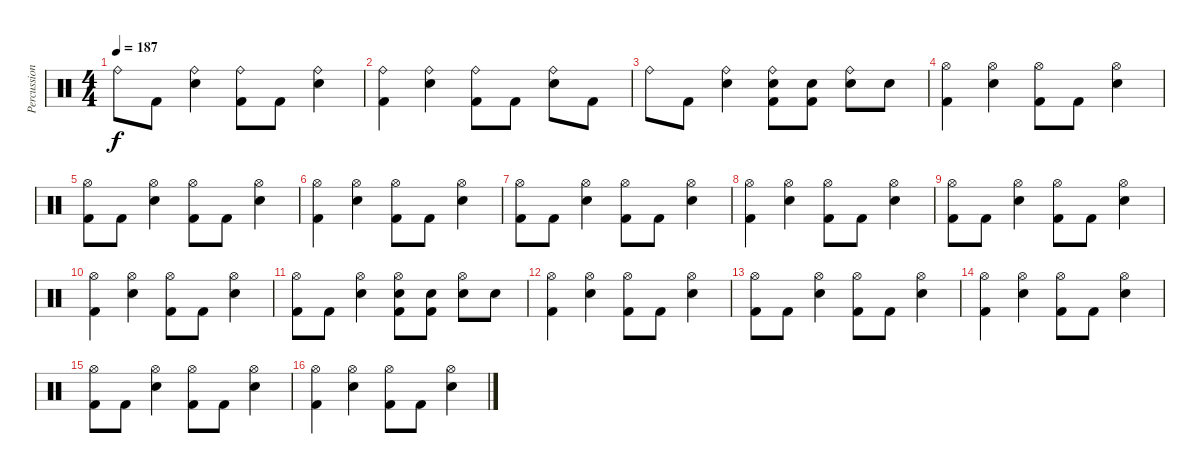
\track ("Percussion" "Percussion") {instrument percussion}
\staff {score}
\articulation defaults
\ts (4 4)
\tempo 187
\clef neutral
\ks c "Ride (bell)".8{dy f} "Kick (hit) 2".8
("Ride (bell)" "Snare (hit) 2").4 ("Ride (bell)" "Kick (hit) 2").8 "Kick (hit) 2".8 ("Ride (bell)" "Snare (hit) 2").4 |
("Ride (bell)" "Kick (hit) 2").4 ("Ride (bell)" "Snare (hit) 2").4 ("Ride (bell)" "Kick (hit) 2").8 "Kick (hit) 2".8 ("Ride (bell)" "Snare (hit) 2").8 "Kick (hit) 2".8 |
"Ride (bell)".8 "Kick (hit) 2".8 ("Ride (bell)" "Snare (hit) 2").4 ("Ride (bell)" "Snare (hit) 2" "Kick (hit) 2").8 ("Snare (hit) 2" "Kick (hit) 2").8 ("Ride (bell)" "Snare (hit) 2").8 "Snare (hit) 2".8 |
("Hi-Hat (open)" "Kick (hit) 2").4 ("Hi-Hat (open)" "Snare (hit) 2").4 ("Hi-Hat (open)" "Kick (hit) 2").8 "Kick (hit) 2".8 ("Hi-Hat (open)" "Snare (hit) 2").4 |
("Hi-Hat (open)" "Kick (hit) 2").8 "Kick (hit) 2".8 ("Hi-Hat (open)" "Snare (hit) 2").4 ("Hi-Hat (open)" "Kick (hit) 2").8 "Kick (hit) 2".8 ("Hi-Hat (open)" "Snare (hit) 2").4 |
("Hi-Hat (open)" "Kick (hit) 2").4 ("Hi-Hat (open)" "Snare (hit) 2").4 ("Hi-Hat (open)" "Kick (hit) 2").8 "Kick (hit) 2".8 ("Hi-Hat (open)" "Snare (hit) 2").4 |
("Hi-Hat (open)" "Kick (hit) 2").8 "Kick (hit) 2".8 ("Hi-Hat (open)" "Snare (hit) 2").4 ("Hi-Hat (open)" "Kick (hit) 2").8 "Kick (hit) 2".8 ("Hi-Hat (open)" "Snare (hit) 2").4 |
("Hi-Hat (open)" "Kick (hit) 2").4 ("Hi-Hat (open)" "Snare (hit) 2").4 ("Hi-Hat (open)" "Kick (hit) 2").8 "Kick (hit) 2".8 ("Hi-Hat (open)" "Snare (hit) 2").4 |
("Hi-Hat (open)" "Kick (hit) 2").8 "Kick (hit) 2".8 ("Hi-Hat (open)" "Snare (hit) 2").4 ("Hi-Hat (open)" "Kick (hit) 2").8 "Kick (hit) 2".8 ("Hi-Hat (open)" "Snare (hit) 2").4 |
("Hi-Hat (open)" "Kick (hit) 2").4 ("Hi-Hat (open)" "Snare (hit) 2").4 ("Hi-Hat (open)" "Kick (hit) 2").8 "Kick (hit) 2".8 ("Hi-Hat (open)" "Snare (hit) 2").4 |
("Hi-Hat (open)" "Kick (hit) 2").8 "Kick (hit) 2".8 ("Hi-Hat (open)" "Snare (hit) 2").4 ("Hi-Hat (open)" "Snare (hit) 2" "Kick (hit) 2").8 ("Snare (hit) 2" "Kick (hit) 2").8 ("Hi-Hat (open)" "Snare (hit) 2").8 "Snare (hit) 2".8 |
("Hi-Hat (open)" "Kick (hit) 2").4 ("Hi-Hat (open)" "Snare (hit) 2").4 ("Hi-Hat (open)" "Kick (hit) 2").8 "Kick (hit) 2".8 ("Hi-Hat (open)" "Snare (hit) 2").4 |
("Hi-Hat (open)" "Kick (hit) 2").8 "Kick (hit) 2".8 ("Hi-Hat (open)" "Snare (hit) 2").4 ("Hi-Hat (open)" "Kick (hit) 2").8 "Kick (hit) 2".8 ("Hi-Hat (open)" "Snare (hit) 2").4 |
("Hi-Hat (open)" "Kick (hit) 2").4 ("Hi-Hat (open)" "Snare (hit) 2").4 ("Hi-Hat (open)" "Kick (hit) 2").8 "Kick (hit) 2".8 ("Hi-Hat (open)" "Snare (hit) 2").4 |
("Hi-Hat (open)" "Kick (hit) 2").8 "Kick (hit) 2".8 ("Hi-Hat (open)" "Snare (hit) 2").4 ("Hi-Hat (open)" "Kick (hit) 2").8 "Kick (hit) 2".8 ("Hi-Hat (open)" "Snare (hit) 2").4 |
("Hi-Hat (open)" "Kick (hit) 2").4 ("Hi-Hat (open)" "Snare (hit) 2").4 ("Hi-Hat (open)" "Kick (hit) 2").8 "Kick (hit) 2".8 ("Hi-Hat (open)" "Snare (hit) 2").4
